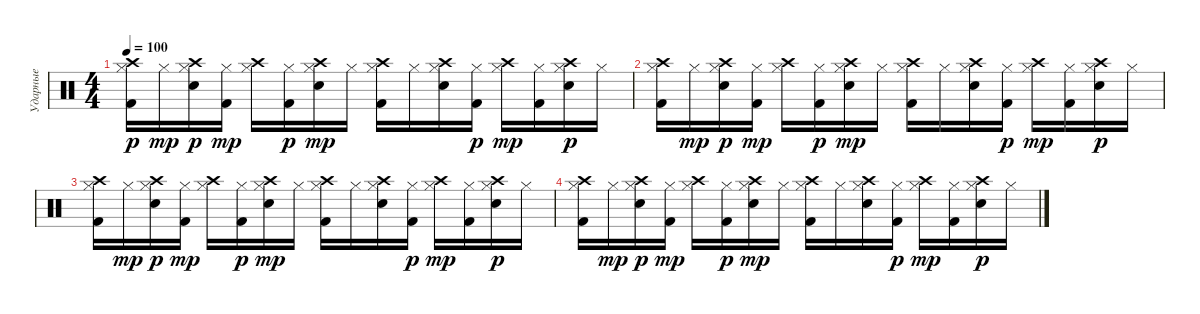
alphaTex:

\track ("Ударные" "Ударные") {instrument percussion}
\staff {score}
\articulation defaults
\ts (4 4)
\tempo 100
\clef neutral
\ks c
("Hi-Hat (closed)" "Kick (hit) 2" "Crash high (hit)").16{dy p} "Hi-Hat (closed)".16{dy mp} ("Hi-Hat (closed)" "Electric Snare (hit)" "Crash high (hit)").16{dy p} ("Hi-Hat (closed)" "Kick (hit) 2").16{dy mp} ("Hi-Hat (closed)" "Crash high (hit)").16 ("Hi-Hat (closed)" "Kick (hit) 2").16{dy p} ("Hi-Hat (closed)" "Electric Snare (hit)" "Crash high (hit)").16{dy mp} "Hi-Hat (closed)".16 ("Hi-Hat (closed)" "Kick (hit) 2" "Crash high (hit)").16 "Hi-Hat (closed)".16 ("Hi-Hat (closed)" "Electric Snare (hit)" "Crash high (hit)").16 ("Hi-Hat (closed)" "Kick (hit) 2").16{dy p} ("Hi-Hat (closed)" "Crash high (hit)").16{dy mp} ("Hi-Hat (closed)" "Kick (hit) 2").16 ("Hi-Hat (closed)" "Electric Snare (hit)" "Crash high (hit)").16{dy p} "Hi-Hat (closed)".16 |
("Hi-Hat (closed)" "Kick (hit) 2" "Crash high (hit)").16 "Hi-Hat (closed)".16{dy mp} ("Hi-Hat (closed)" "Electric Snare (hit)" "Crash high (hit)").16{dy p} ("Hi-Hat (closed)" "Kick (hit) 2").16{dy mp} ("Hi-Hat (closed)" "Crash high (hit)").16 ("Hi-Hat (closed)" "Kick (hit) 2").16{dy p} ("Hi-Hat (closed)" "Electric Snare (hit)" "Crash high (hit)").16{dy mp} "Hi-Hat (closed)".16 ("Hi-Hat (closed)" "Kick (hit) 2" "Crash high (hit)").16 "Hi-Hat (closed)".16 ("Hi-Hat (closed)" "Electric Snare (hit)" "Crash high (hit)").16 ("Hi-Hat (closed)" "Kick (hit) 2").16{dy p} ("Hi-Hat (closed)" "Crash high (hit)").16{dy mp} ("Hi-Hat (closed)" "Kick (hit) 2").16 ("Hi-Hat (closed)" "Electric Snare (hit)" "Crash high (hit)").16{dy p} "Hi-Hat (closed)".16 |
("Hi-Hat (closed)" "Kick (hit) 2" "Crash high (hit)").16 "Hi-Hat (closed)".16{dy mp} ("Hi-Hat (closed)" "Electric Snare (hit)" "Crash high (hit)").16{dy p} ("Hi-Hat (closed)" "Kick (hit) 2").16{dy mp} ("Hi-Hat (closed)" "Crash high (hit)").16 ("Hi-Hat (closed)" "Kick (hit) 2").16{dy p} ("Hi-Hat (closed)" "Electric Snare (hit)" "Crash high (hit)").16{dy mp} "Hi-Hat (closed)".16 ("Hi-Hat (closed)" "Kick (hit) 2" "Crash high (hit)").16 "Hi-Hat (closed)".16 ("Hi-Hat (closed)" "Electric Snare (hit)" "Crash high (hit)").16 ("Hi-Hat (closed)" "Kick (hit) 2").16{dy p} ("Hi-Hat (closed)" "Crash high (hit)").16{dy mp} ("Hi-Hat (closed)" "Kick (hit) 2").16 ("Hi-Hat (closed)" "Electric Snare (hit)" "Crash high (hit)").16{dy p} "Hi-Hat (closed)".16 |
("Hi-Hat (closed)" "Kick (hit) 2" "Crash high (hit)").16 "Hi-Hat (closed)".16{dy mp} ("Hi-Hat (closed)" "Electric Snare (hit)" "Crash high (hit)").16{dy p} ("Hi-Hat (closed)" "Kick (hit) 2").16{dy mp} ("Hi-Hat (closed)" "Crash high (hit)").16 ("Hi-Hat (closed)" "Kick (hit) 2").16{dy p} ("Hi-Hat (closed)" "Electric Snare (hit)" "Crash high (hit)").16{dy mp} "Hi-Hat (closed)".16 ("Hi-Hat (closed)" "Kick (hit) 2" "Crash high (hit)").16 "Hi-Hat (closed)".16 ("Hi-Hat (closed)" "Electric Snare (hit)" "Crash high (hit)").16 ("Hi-Hat (closed)" "Kick (hit) 2").16{dy p} ("Hi-Hat (closed)" "Crash high (hit)").16{dy mp} ("Hi-Hat (closed)" "Kick (hit) 2").16 ("Hi-Hat (closed)" "Electric Snare (hit)" "Crash high (hit)").16{dy p} "Hi-Hat (closed)".16
